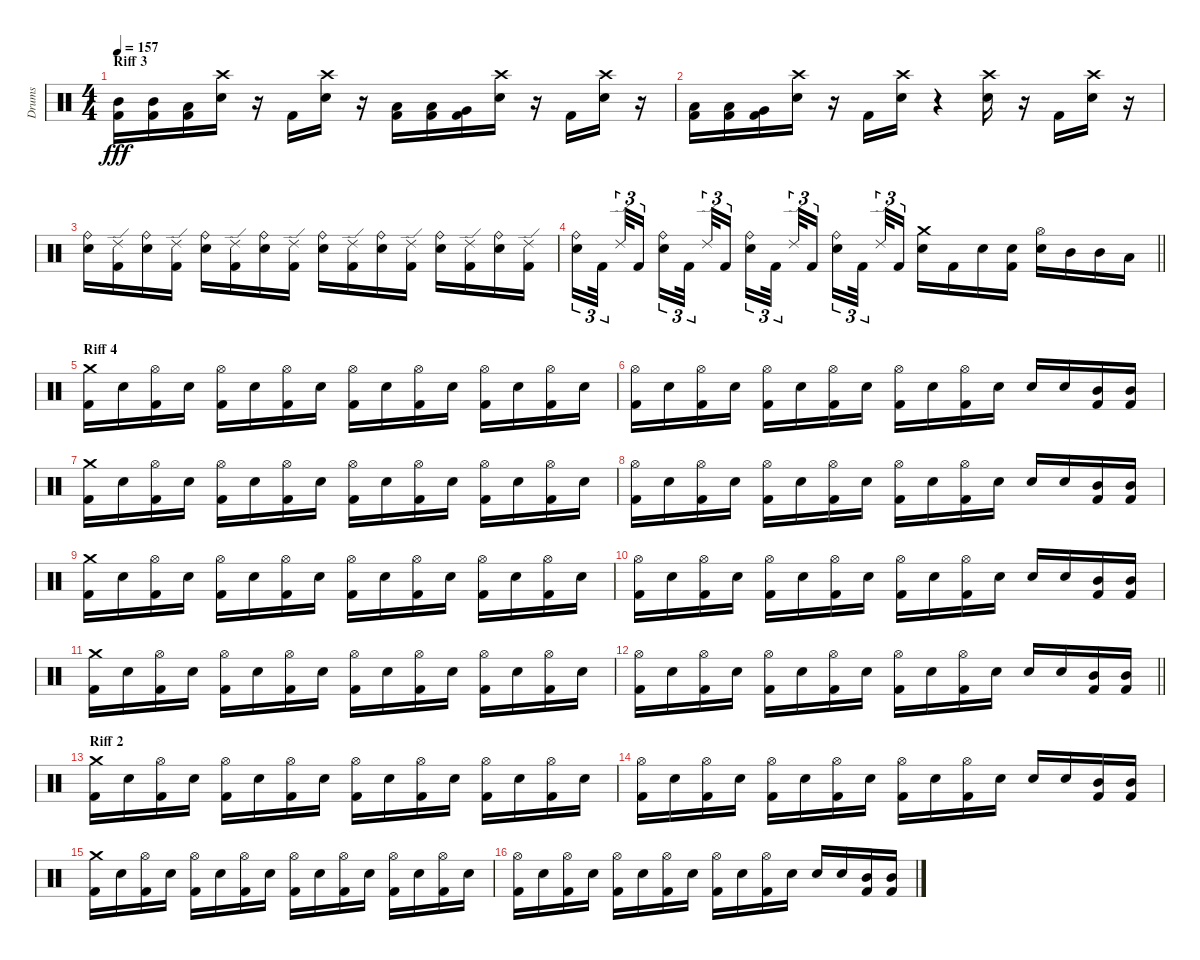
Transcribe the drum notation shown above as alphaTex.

\track ("Drums" "Drums") {instrument percussion}
\staff {score}
\articulation defaults
\ts (4 4)
\section ("" "Riff 3")
\tempo 157
\clef neutral
\ks c
("Kick (hit) 2" "Mid Tom (hit)").16{dy fff} ("Kick (hit) 2" "Mid Tom (hit)").16 ("Kick (hit) 2" "Low Tom (hit)").16 ("Snare (hit) 2" "Crash high (hit)").16 r.16 "Kick (hit) 2".16 ("Snare (hit) 2" "Crash high (hit)").16 r.16 ("Kick (hit) 2" "Low Tom (hit)").16 ("Kick (hit) 2" "Low Tom (hit)").16 ("Kick (hit) 2" "Very Low Tom (hit)").16 ("Snare (hit) 2" "Crash high (hit)").16 r.16 "Kick (hit) 2".16 ("Snare (hit) 2" "Crash high (hit)").16 r.16 |
("Kick (hit) 2" "Low Tom (hit)").16 ("Kick (hit) 2" "Low Tom (hit)").16 ("Kick (hit) 2" "Very Low Tom (hit)").16 ("Snare (hit) 2" "Crash high (hit)").16 r.16 "Kick (hit) 2".16 ("Snare (hit) 2" "Crash high (hit)").16 r.4 ("Snare (hit) 2" "Crash high (hit)").16 r.16 "Kick (hit) 2".16 ("Snare (hit) 2" "Crash high (hit)").16 r.16 |
("Snare (hit) 2" "Ride (bell)").16 ("Kick (hit) 2" "Ride (edge) 2").16 ("Snare (hit) 2" "Ride (bell)").16 ("Kick (hit) 2" "Ride (edge) 2").16 ("Snare (hit) 2" "Ride (bell)").16 ("Kick (hit) 2" "Ride (edge) 2").16 ("Snare (hit) 2" "Ride (bell)").16 ("Kick (hit) 2" "Ride (edge) 2").16 ("Snare (hit) 2" "Ride (bell)").16 ("Kick (hit) 2" "Ride (edge) 2").16 ("Snare (hit) 2" "Ride (bell)").16 ("Kick (hit) 2" "Ride (edge) 2").16 ("Snare (hit) 2" "Ride (bell)").16 ("Kick (hit) 2" "Ride (edge) 2").16 ("Snare (hit) 2" "Ride (bell)").16 ("Kick (hit) 2" "Ride (edge) 2").16 |
\barLineRight lightlight
("Snare (hit) 2" "Ride (bell)").16{tu (3 2)} "Kick (hit) 2".32{tu (3 2) beam splitsecondary} "Ride (edge) 2".32{tu (3 2)} "Kick (hit) 2".16{tu (3 2) beam splitsecondary} ("Snare (hit) 2" "Ride (bell)").16{tu (3 2)} "Kick (hit) 2".32{tu (3 2) beam splitsecondary} "Ride (edge) 2".32{tu (3 2)} "Kick (hit) 2".16{tu (3 2)} ("Snare (hit) 2" "Ride (bell)").16{tu (3 2)} "Kick (hit) 2".32{tu (3 2) beam splitsecondary} "Ride (edge) 2".32{tu (3 2)} "Kick (hit) 2".16{tu (3 2) beam splitsecondary} ("Snare (hit) 2" "Ride (bell)").16{tu (3 2)} "Kick (hit) 2".32{tu (3 2) beam splitsecondary} "Ride (edge) 2".32{tu (3 2)} "Kick (hit) 2".16{tu (3 2)} ("Snare (hit) 2" "Crash medium (hit)").16 "Kick (hit) 2".16 "Snare (hit) 2".16 ("Kick (hit) 2" "Snare (hit) 2").16 ("Snare (hit) 2" "Hi-Hat (open)").16 "Mid Tom (hit)".16 "Mid Tom (hit)".16 "Low Tom (hit)".16 |
\section ("" "Riff 4")
("Kick (hit) 2" "Crash medium (hit)").16 "Snare (hit) 2".16 ("Kick (hit) 2" "Hi-Hat (open)").16 "Snare (hit) 2".16 ("Kick (hit) 2" "Hi-Hat (open)").16 "Snare (hit) 2".16 ("Kick (hit) 2" "Hi-Hat (open)").16 "Snare (hit) 2".16 ("Kick (hit) 2" "Hi-Hat (open)").16 "Snare (hit) 2".16 ("Kick (hit) 2" "Hi-Hat (open)").16 "Snare (hit) 2".16 ("Kick (hit) 2" "Hi-Hat (open)").16 "Snare (hit) 2".16 ("Kick (hit) 2" "Hi-Hat (open)").16 "Snare (hit) 2".16 |
("Kick (hit) 2" "Hi-Hat (open)").16 "Snare (hit) 2".16 ("Kick (hit) 2" "Hi-Hat (open)").16 "Snare (hit) 2".16 ("Kick (hit) 2" "Hi-Hat (open)").16 "Snare (hit) 2".16 ("Kick (hit) 2" "Hi-Hat (open)").16 "Snare (hit) 2".16 ("Kick (hit) 2" "Hi-Hat (open)").16 "Snare (hit) 2".16 ("Kick (hit) 2" "Hi-Hat (open)").16 "Snare (hit) 2".16 "Snare (hit) 2".16 "Snare (hit) 2".16 ("Kick (hit) 2" "Mid Tom (hit)").16 ("Kick (hit) 2" "Mid Tom (hit)").16 |
("Kick (hit) 2" "Crash medium (hit)").16 "Snare (hit) 2".16 ("Kick (hit) 2" "Hi-Hat (open)").16 "Snare (hit) 2".16 ("Kick (hit) 2" "Hi-Hat (open)").16 "Snare (hit) 2".16 ("Kick (hit) 2" "Hi-Hat (open)").16 "Snare (hit) 2".16 ("Kick (hit) 2" "Hi-Hat (open)").16 "Snare (hit) 2".16 ("Kick (hit) 2" "Hi-Hat (open)").16 "Snare (hit) 2".16 ("Kick (hit) 2" "Hi-Hat (open)").16 "Snare (hit) 2".16 ("Kick (hit) 2" "Hi-Hat (open)").16 "Snare (hit) 2".16 |
("Kick (hit) 2" "Hi-Hat (open)").16 "Snare (hit) 2".16 ("Kick (hit) 2" "Hi-Hat (open)").16 "Snare (hit) 2".16 ("Kick (hit) 2" "Hi-Hat (open)").16 "Snare (hit) 2".16 ("Kick (hit) 2" "Hi-Hat (open)").16 "Snare (hit) 2".16 ("Kick (hit) 2" "Hi-Hat (open)").16 "Snare (hit) 2".16 ("Kick (hit) 2" "Hi-Hat (open)").16 "Snare (hit) 2".16 "Snare (hit) 2".16 "Snare (hit) 2".16 ("Kick (hit) 2" "Mid Tom (hit)").16 ("Kick (hit) 2" "Mid Tom (hit)").16 |
("Kick (hit) 2" "Crash medium (hit)").16 "Snare (hit) 2".16 ("Kick (hit) 2" "Hi-Hat (open)").16 "Snare (hit) 2".16 ("Kick (hit) 2" "Hi-Hat (open)").16 "Snare (hit) 2".16 ("Kick (hit) 2" "Hi-Hat (open)").16 "Snare (hit) 2".16 ("Kick (hit) 2" "Hi-Hat (open)").16 "Snare (hit) 2".16 ("Kick (hit) 2" "Hi-Hat (open)").16 "Snare (hit) 2".16 ("Kick (hit) 2" "Hi-Hat (open)").16 "Snare (hit) 2".16 ("Kick (hit) 2" "Hi-Hat (open)").16 "Snare (hit) 2".16 |
("Kick (hit) 2" "Hi-Hat (open)").16 "Snare (hit) 2".16 ("Kick (hit) 2" "Hi-Hat (open)").16 "Snare (hit) 2".16 ("Kick (hit) 2" "Hi-Hat (open)").16 "Snare (hit) 2".16 ("Kick (hit) 2" "Hi-Hat (open)").16 "Snare (hit) 2".16 ("Kick (hit) 2" "Hi-Hat (open)").16 "Snare (hit) 2".16 ("Kick (hit) 2" "Hi-Hat (open)").16 "Snare (hit) 2".16 "Snare (hit) 2".16 "Snare (hit) 2".16 ("Kick (hit) 2" "Mid Tom (hit)").16 ("Kick (hit) 2" "Mid Tom (hit)").16 |
("Kick (hit) 2" "Crash medium (hit)").16 "Snare (hit) 2".16 ("Kick (hit) 2" "Hi-Hat (open)").16 "Snare (hit) 2".16 ("Kick (hit) 2" "Hi-Hat (open)").16 "Snare (hit) 2".16 ("Kick (hit) 2" "Hi-Hat (open)").16 "Snare (hit) 2".16 ("Kick (hit) 2" "Hi-Hat (open)").16 "Snare (hit) 2".16 ("Kick (hit) 2" "Hi-Hat (open)").16 "Snare (hit) 2".16 ("Kick (hit) 2" "Hi-Hat (open)").16 "Snare (hit) 2".16 ("Kick (hit) 2" "Hi-Hat (open)").16 "Snare (hit) 2".16 |
\barLineRight lightlight
("Kick (hit) 2" "Hi-Hat (open)").16 "Snare (hit) 2".16 ("Kick (hit) 2" "Hi-Hat (open)").16 "Snare (hit) 2".16 ("Kick (hit) 2" "Hi-Hat (open)").16 "Snare (hit) 2".16 ("Kick (hit) 2" "Hi-Hat (open)").16 "Snare (hit) 2".16 ("Kick (hit) 2" "Hi-Hat (open)").16 "Snare (hit) 2".16 ("Kick (hit) 2" "Hi-Hat (open)").16 "Snare (hit) 2".16 "Snare (hit) 2".16 "Snare (hit) 2".16 ("Kick (hit) 2" "Mid Tom (hit)").16 ("Kick (hit) 2" "Mid Tom (hit)").16 |
\section ("" "Riff 2")
("Kick (hit) 2" "Crash medium (hit)").16 "Snare (hit) 2".16 ("Kick (hit) 2" "Hi-Hat (open)").16 "Snare (hit) 2".16 ("Kick (hit) 2" "Hi-Hat (open)").16 "Snare (hit) 2".16 ("Kick (hit) 2" "Hi-Hat (open)").16 "Snare (hit) 2".16 ("Kick (hit) 2" "Hi-Hat (open)").16 "Snare (hit) 2".16 ("Kick (hit) 2" "Hi-Hat (open)").16 "Snare (hit) 2".16 ("Kick (hit) 2" "Hi-Hat (open)").16 "Snare (hit) 2".16 ("Kick (hit) 2" "Hi-Hat (open)").16 "Snare (hit) 2".16 |
("Kick (hit) 2" "Hi-Hat (open)").16 "Snare (hit) 2".16 ("Kick (hit) 2" "Hi-Hat (open)").16 "Snare (hit) 2".16 ("Kick (hit) 2" "Hi-Hat (open)").16 "Snare (hit) 2".16 ("Kick (hit) 2" "Hi-Hat (open)").16 "Snare (hit) 2".16 ("Kick (hit) 2" "Hi-Hat (open)").16 "Snare (hit) 2".16 ("Kick (hit) 2" "Hi-Hat (open)").16 "Snare (hit) 2".16 "Snare (hit) 2".16 "Snare (hit) 2".16 ("Kick (hit) 2" "Mid Tom (hit)").16 ("Kick (hit) 2" "Mid Tom (hit)").16 |
("Kick (hit) 2" "Crash medium (hit)").16 "Snare (hit) 2".16 ("Kick (hit) 2" "Hi-Hat (open)").16 "Snare (hit) 2".16 ("Kick (hit) 2" "Hi-Hat (open)").16 "Snare (hit) 2".16 ("Kick (hit) 2" "Hi-Hat (open)").16 "Snare (hit) 2".16 ("Kick (hit) 2" "Hi-Hat (open)").16 "Snare (hit) 2".16 ("Kick (hit) 2" "Hi-Hat (open)").16 "Snare (hit) 2".16 ("Kick (hit) 2" "Hi-Hat (open)").16 "Snare (hit) 2".16 ("Kick (hit) 2" "Hi-Hat (open)").16 "Snare (hit) 2".16 |
("Kick (hit) 2" "Hi-Hat (open)").16 "Snare (hit) 2".16 ("Kick (hit) 2" "Hi-Hat (open)").16 "Snare (hit) 2".16 ("Kick (hit) 2" "Hi-Hat (open)").16 "Snare (hit) 2".16 ("Kick (hit) 2" "Hi-Hat (open)").16 "Snare (hit) 2".16 ("Kick (hit) 2" "Hi-Hat (open)").16 "Snare (hit) 2".16 ("Kick (hit) 2" "Hi-Hat (open)").16 "Snare (hit) 2".16 "Snare (hit) 2".16 "Snare (hit) 2".16 ("Kick (hit) 2" "Mid Tom (hit)").16 ("Kick (hit) 2" "Mid Tom (hit)").16
